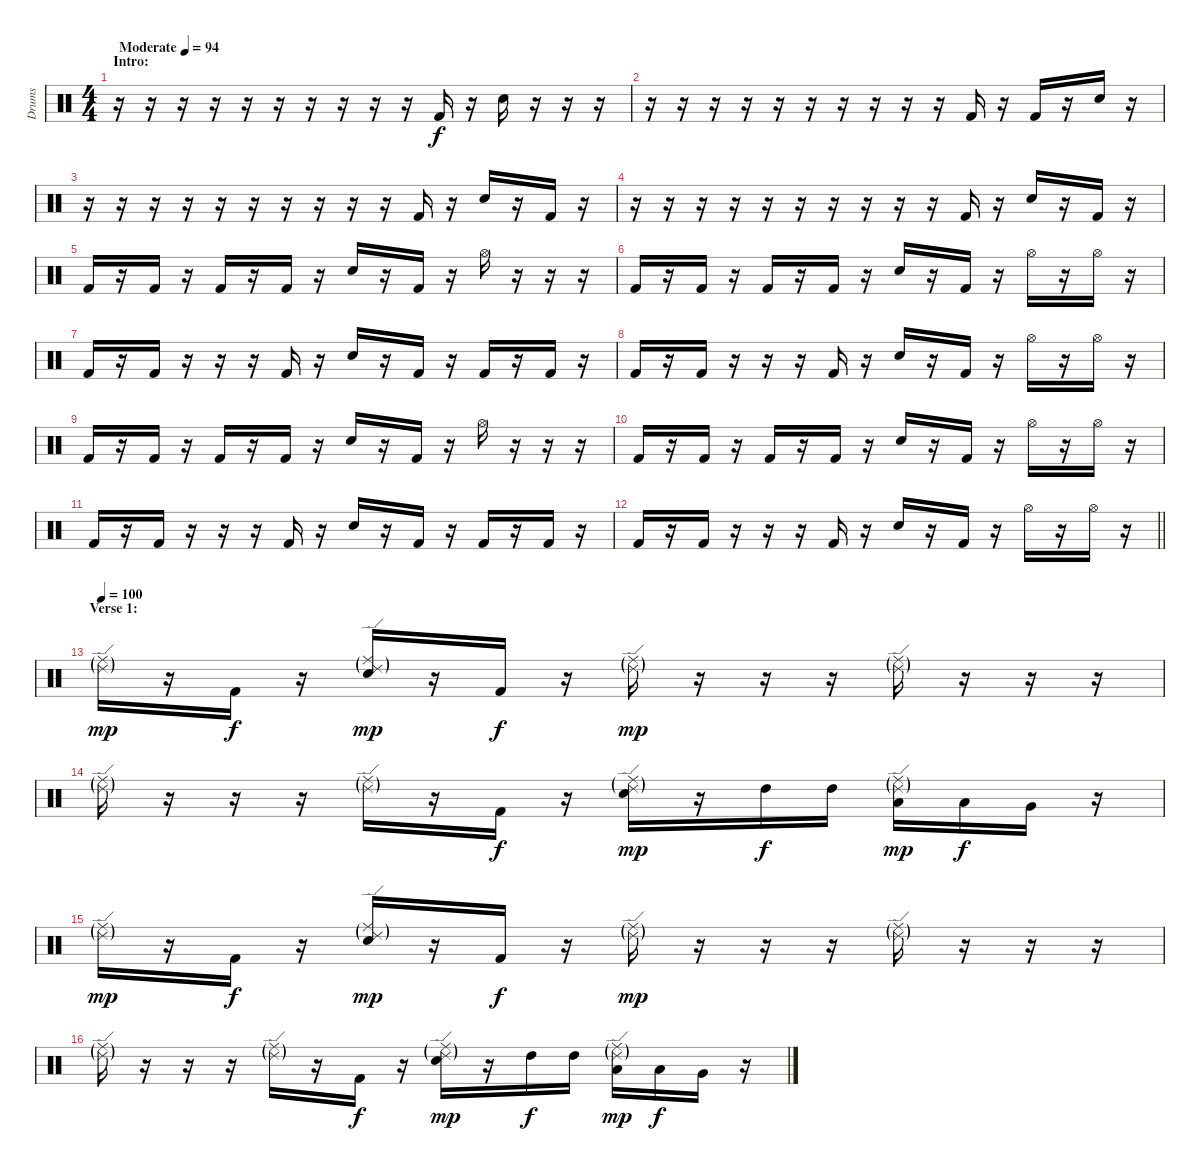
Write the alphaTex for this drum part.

\track ("Drums" "Drums") {instrument percussion}
\staff {score}
\articulation defaults
\ts (4 4)
\section ("" "Intro:")
\tempo (94 "Moderate")
\clef neutral
\ks c
r.16{dy f} r.16 r.16 r.16 r.16 r.16 r.16 r.16 r.16 r.16 "Kick (hit) 2".16 r.16 "Electric Snare (hit)".16 r.16 r.16 r.16 |
r.16 r.16 r.16 r.16 r.16 r.16 r.16 r.16 r.16 r.16 "Kick (hit) 2".16 r.16 "Kick (hit) 2".16 r.16 "Electric Snare (hit)".16 r.16 |
r.16 r.16 r.16 r.16 r.16 r.16 r.16 r.16 r.16 r.16 "Kick (hit) 2".16 r.16 "Electric Snare (hit)".16 r.16 "Kick (hit) 2".16 r.16 |
r.16 r.16 r.16 r.16 r.16 r.16 r.16 r.16 r.16 r.16 "Kick (hit) 2".16 r.16 "Electric Snare (hit)".16 r.16 "Kick (hit) 2".16 r.16 |
"Kick (hit) 2".16 r.16 "Kick (hit) 2".16 r.16 "Kick (hit) 2".16 r.16 "Kick (hit) 2".16 r.16 "Electric Snare (hit)".16 r.16 "Kick (hit) 2".16 r.16 "Hi-Hat (open)".16 r.16 r.16 r.16 |
"Kick (hit) 2".16 r.16 "Kick (hit) 2".16 r.16 "Kick (hit) 2".16 r.16 "Kick (hit) 2".16 r.16 "Electric Snare (hit)".16 r.16 "Kick (hit) 2".16 r.16 "Hi-Hat (open)".16 r.16 "Hi-Hat (open)".16 r.16 |
"Kick (hit) 2".16 r.16 "Kick (hit) 2".16 r.16 r.16 r.16 "Kick (hit) 2".16 r.16 "Electric Snare (hit)".16 r.16 "Kick (hit) 2".16 r.16 "Kick (hit) 2".16 r.16 "Kick (hit) 2".16 r.16 |
"Kick (hit) 2".16 r.16 "Kick (hit) 2".16 r.16 r.16 r.16 "Kick (hit) 2".16 r.16 "Electric Snare (hit)".16 r.16 "Kick (hit) 2".16 r.16 "Hi-Hat (open)".16 r.16 "Hi-Hat (open)".16 r.16 |
"Kick (hit) 2".16 r.16 "Kick (hit) 2".16 r.16 "Kick (hit) 2".16 r.16 "Kick (hit) 2".16 r.16 "Electric Snare (hit)".16 r.16 "Kick (hit) 2".16 r.16 "Hi-Hat (open)".16 r.16 r.16 r.16 |
"Kick (hit) 2".16 r.16 "Kick (hit) 2".16 r.16 "Kick (hit) 2".16 r.16 "Kick (hit) 2".16 r.16 "Electric Snare (hit)".16 r.16 "Kick (hit) 2".16 r.16 "Hi-Hat (open)".16 r.16 "Hi-Hat (open)".16 r.16 |
"Kick (hit) 2".16 r.16 "Kick (hit) 2".16 r.16 r.16 r.16 "Kick (hit) 2".16 r.16 "Electric Snare (hit)".16 r.16 "Kick (hit) 2".16 r.16 "Kick (hit) 2".16 r.16 "Kick (hit) 2".16 r.16 |
\barLineRight lightlight "Kick (hit) 2".16
r.16 "Kick (hit) 2".16 r.16 r.16 r.16 "Kick (hit) 2".16 r.16 "Electric Snare (hit)".16 r.16 "Kick (hit) 2".16 r.16 "Hi-Hat (open)".16 r.16 "Hi-Hat (open)".16 r.16 |
\section ("" "Verse 1:")
\tempo 100
("Ride (middle)"{g} "Ride (edge) 2"{g}).16{dy mp} r.16 "Kick (hit) 2".16{dy f} r.16 ("Ride (middle)"{g} "Ride (edge) 2"{g} "Electric Snare (hit)").16{dy mp} r.16 "Kick (hit) 2".16{dy f} r.16 ("Ride (middle)"{g} "Ride (edge) 2"{g}).16{dy mp} r.16 r.16 r.16 ("Ride (middle)"{g} "Ride (edge) 2"{g}).16 r.16 r.16 r.16 |
("Ride (middle)"{g} "Ride (edge) 2"{g}).16 r.16 r.16 r.16 ("Ride (middle)"{g} "Ride (edge) 2"{g}).16 r.16 "Kick (hit) 2".16{dy f} r.16 ("Ride (middle)"{g} "Ride (edge) 2"{g} "Electric Snare (hit)").16{dy mp} r.16 "High Tom (hit)".16{dy f} "High Tom (hit)".16 ("Ride (middle)"{g} "Ride (edge) 2"{g} "Low Tom (hit)").16{dy mp} "Low Tom (hit)".16{dy f} "Very Low Tom (hit)".16 r.16 |
("Ride (middle)"{g} "Ride (edge) 2"{g}).16{dy mp} r.16 "Kick (hit) 2".16{dy f} r.16 ("Ride (middle)"{g} "Ride (edge) 2"{g} "Electric Snare (hit)").16{dy mp} r.16 "Kick (hit) 2".16{dy f} r.16 ("Ride (middle)"{g} "Ride (edge) 2"{g}).16{dy mp} r.16 r.16 r.16 ("Ride (middle)"{g} "Ride (edge) 2"{g}).16 r.16 r.16 r.16 |
("Ride (middle)"{g} "Ride (edge) 2"{g}).16 r.16 r.16 r.16 ("Ride (middle)"{g} "Ride (edge) 2"{g}).16 r.16 "Kick (hit) 2".16{dy f} r.16 ("Ride (middle)"{g} "Ride (edge) 2"{g} "Electric Snare (hit)").16{dy mp} r.16 "High Tom (hit)".16{dy f} "High Tom (hit)".16 ("Ride (middle)"{g} "Ride (edge) 2"{g} "Low Tom (hit)").16{dy mp} "Low Tom (hit)".16{dy f} "Very Low Tom (hit)".16 r.16
